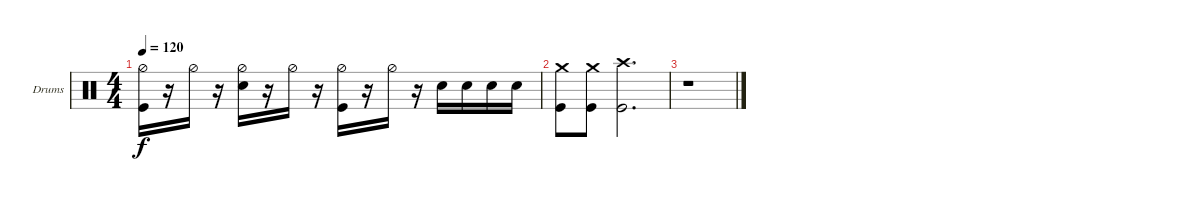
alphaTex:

\defaultSystemsLayout 4
\bracketExtendMode groupsimilarinstruments
\firstSystemTrackNameOrientation horizontal
\otherSystemsTrackNameOrientation horizontal
\track ("Drums  SK" "Drums") {instrument percussion}
\staff {score}
\articulation defaults
\ts (4 4)
\tempo 120
\clef neutral
\ks c
("Kick (hit)" "Hi-Hat (half)").16{dy f} r.16 "Hi-Hat (half)".16 r.16 ("Snare (hit) 2" "Hi-Hat (half)").16 r.16 "Hi-Hat (half)".16 r.16 ("Kick (hit)" "Hi-Hat (half)").16 r.16 "Hi-Hat (half)".16 r.16 "Snare (hit) 2".16 "Snare (hit) 2".16 "Snare (hit) 2".16 "Snare (hit) 2".16 |
("Kick (hit)" "Crash medium (hit)").8 ("Kick (hit)" "Crash medium (hit)").8 ("Kick (hit)" "Crash high (hit)").2{d} |
r.1
